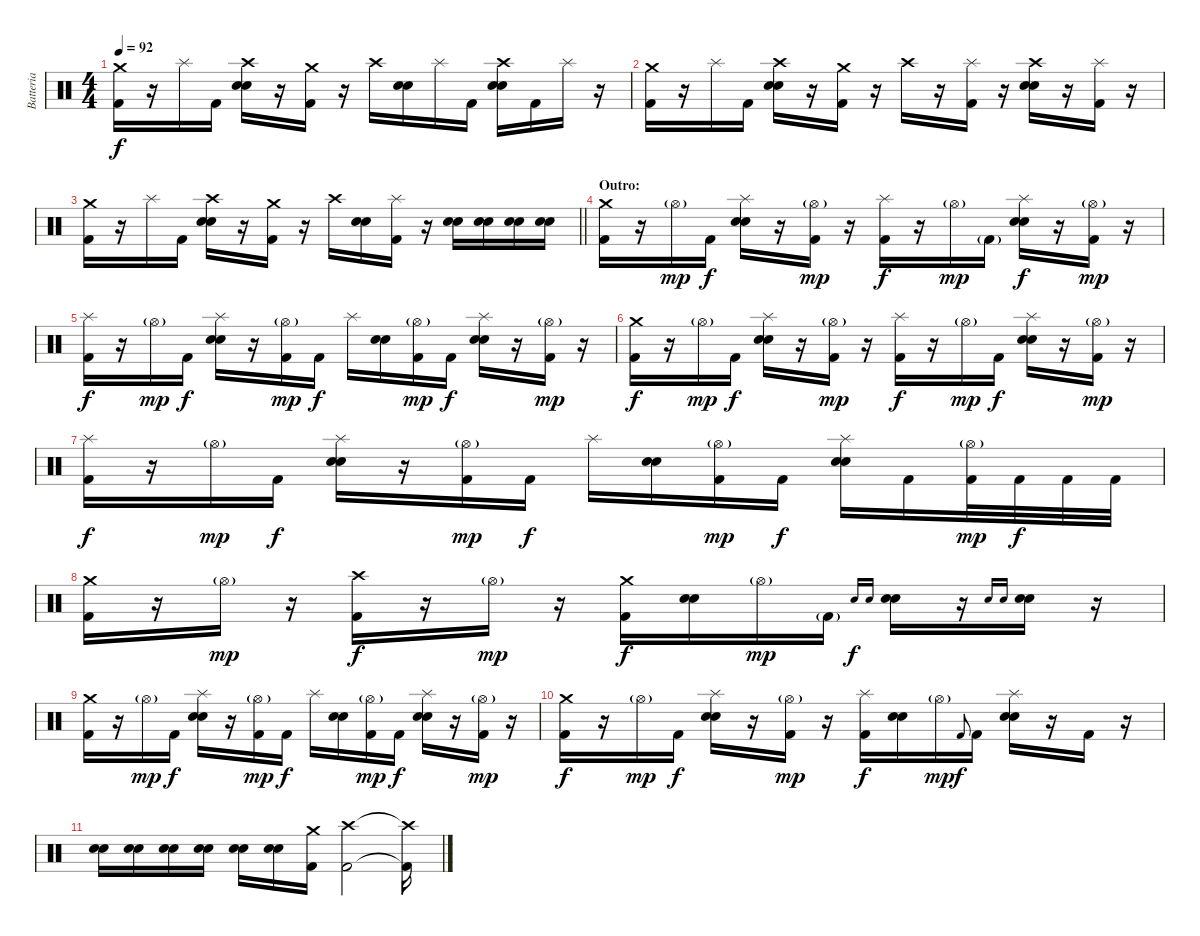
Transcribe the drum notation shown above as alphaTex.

\track ("Batteria" "Batteria") {instrument percussion}
\staff {score}
\articulation defaults
\ts (4 4)
\tempo 92
\clef neutral
\ks c
("Kick (hit) 2" "Crash medium (hit)").16{dy f} r.16 "Splash (hit)".16 "Kick (hit) 2".16 ("Snare (hit) 2" "Snare (hit) 2" "Crash high (hit)").16 r.16 ("Kick (hit) 2" "Crash medium (hit)").16 r.16 "Crash high (hit)".16 ("Snare (hit) 2" "Snare (hit) 2").16 "Splash (hit)".16 "Kick (hit) 2".16 ("Snare (hit) 2" "Snare (hit) 2" "Crash high (hit)").16 "Kick (hit) 2".16 "Splash (hit)".16 r.16 |
("Kick (hit) 2" "Crash medium (hit)").16 r.16 "Splash (hit)".16 "Kick (hit) 2".16 ("Snare (hit) 2" "Snare (hit) 2" "Crash high (hit)").16 r.16 ("Kick (hit) 2" "Crash medium (hit)").16 r.16 "Crash high (hit)".16 r.16 ("Kick (hit) 2" "Splash (hit)").16 r.16 ("Snare (hit) 2" "Snare (hit) 2" "Crash high (hit)").16 r.16 ("Kick (hit) 2" "Splash (hit)").16 r.16 |
\barLineRight lightlight
("Kick (hit) 2" "Crash medium (hit)").16 r.16 "Splash (hit)".16 "Kick (hit) 2".16 ("Snare (hit) 2" "Snare (hit) 2" "Crash high (hit)").16 r.16 ("Kick (hit) 2" "Crash medium (hit)").16 r.16 "Crash high (hit)".16 ("Snare (hit) 2" "Snare (hit) 2").16 ("Kick (hit) 2" "Splash (hit)").16 r.16 ("Snare (hit) 2" "Snare (hit) 2").16 ("Snare (hit) 2" "Snare (hit) 2").16 ("Snare (hit) 2" "Snare (hit) 2").16 ("Snare (hit) 2" "Snare (hit) 2").16 |
\section ("" "Outro:")
("Kick (hit) 2" "Crash medium (hit)").16 r.16 "Hi-Hat (open)"{g}.16{dy mp} "Kick (hit) 2".16{dy f} ("Snare (hit) 2" "Snare (hit) 2" "Splash (hit)").16 r.16 ("Kick (hit) 2" "Hi-Hat (open)"{g}).16{dy mp} r.16 ("Kick (hit) 2" "Splash (hit)").16{dy f} r.16 "Hi-Hat (open)"{g}.16{dy mp} "Kick (hit) 2"{g}.16 ("Snare (hit) 2" "Snare (hit) 2" "Splash (hit)").16{dy f} r.16 ("Kick (hit) 2" "Hi-Hat (open)"{g}).16{dy mp} r.16 |
("Kick (hit) 2" "Splash (hit)").16{dy f} r.16 "Hi-Hat (open)"{g}.16{dy mp} "Kick (hit) 2".16{dy f} ("Snare (hit) 2" "Snare (hit) 2" "Splash (hit)").16 r.16 ("Kick (hit) 2" "Hi-Hat (open)"{g}).16{dy mp} "Kick (hit) 2".16{dy f} "Splash (hit)".16 ("Snare (hit) 2" "Snare (hit) 2").16 ("Kick (hit) 2" "Hi-Hat (open)"{g}).16{dy mp} "Kick (hit) 2".16{dy f} ("Snare (hit) 2" "Snare (hit) 2" "Splash (hit)").16 r.16 ("Kick (hit) 2" "Hi-Hat (open)"{g}).16{dy mp} r.16 |
("Kick (hit) 2" "Crash medium (hit)").16{dy f} r.16 "Hi-Hat (open)"{g}.16{dy mp} "Kick (hit) 2".16{dy f} ("Snare (hit) 2" "Snare (hit) 2" "Splash (hit)").16 r.16 ("Kick (hit) 2" "Hi-Hat (open)"{g}).16{dy mp} r.16 ("Kick (hit) 2" "Splash (hit)").16{dy f} r.16 "Hi-Hat (open)"{g}.16{dy mp} "Kick (hit) 2".16{dy f} ("Snare (hit) 2" "Snare (hit) 2" "Splash (hit)").16 r.16 ("Kick (hit) 2" "Hi-Hat (open)"{g}).16{dy mp} r.16 |
("Kick (hit) 2" "Splash (hit)").16{dy f} r.16 "Hi-Hat (open)"{g}.16{dy mp} "Kick (hit) 2".16{dy f} ("Snare (hit) 2" "Snare (hit) 2" "Splash (hit)").16 r.16 ("Kick (hit) 2" "Hi-Hat (open)"{g}).16{dy mp} "Kick (hit) 2".16{dy f} "Splash (hit)".16 ("Snare (hit) 2" "Snare (hit) 2").16 ("Kick (hit) 2" "Hi-Hat (open)"{g}).16{dy mp} "Kick (hit) 2".16{dy f} ("Snare (hit) 2" "Snare (hit) 2" "Splash (hit)").16 "Kick (hit) 2".16 ("Kick (hit) 2" "Hi-Hat (open)"{g}).32{dy mp} "Kick (hit) 2".32{dy f} "Kick (hit) 2".32 "Kick (hit) 2".32 |
("Kick (hit) 2" "Crash medium (hit)").16 r.16 "Hi-Hat (open)"{g}.16{dy mp} r.16 ("Kick (hit) 2" "Crash high (hit)").16{dy f} r.16 "Hi-Hat (open)"{g}.16{dy mp} r.16 ("Kick (hit) 2" "Crash medium (hit)").16{dy f} ("Snare (hit) 2" "Snare (hit) 2").16 "Hi-Hat (open)"{g}.16{dy mp} "Kick (hit) 2"{g}.16 "Snare (hit) 2".16{gr onbeat dy f} "Snare (hit) 2".16{gr onbeat} ("Snare (hit) 2" "Snare (hit) 2").16 r.16 "Snare (hit) 2".16{gr onbeat} "Snare (hit) 2".16{gr onbeat} ("Snare (hit) 2" "Snare (hit) 2").16 r.16 |
("Kick (hit) 2" "Crash medium (hit)").16 r.16 "Hi-Hat (open)"{g}.16{dy mp} "Kick (hit) 2".16{dy f} ("Snare (hit) 2" "Snare (hit) 2" "Splash (hit)").16 r.16 ("Kick (hit) 2" "Hi-Hat (open)"{g}).16{dy mp} "Kick (hit) 2".16{dy f} "Splash (hit)".16 ("Snare (hit) 2" "Snare (hit) 2").16 ("Kick (hit) 2" "Hi-Hat (open)"{g}).16{dy mp} "Kick (hit) 2".16{dy f} ("Snare (hit) 2" "Snare (hit) 2" "Splash (hit)").16 r.16 ("Kick (hit) 2" "Hi-Hat (open)"{g}).16{dy mp} r.16 |
("Kick (hit) 2" "Crash medium (hit)").16{dy f} r.16 "Hi-Hat (open)"{g}.16{dy mp} "Kick (hit) 2".16{dy f} ("Snare (hit) 2" "Snare (hit) 2" "Splash (hit)").16 r.16 ("Kick (hit) 2" "Hi-Hat (open)"{g}).16{dy mp} r.16 ("Kick (hit) 2" "Splash (hit)").16{dy f} ("Snare (hit) 2" "Snare (hit) 2").16 "Hi-Hat (open)"{g}.16{dy mp} "Kick (hit) 2".8{gr onbeat dy f} "Kick (hit) 2".16 ("Snare (hit) 2" "Snare (hit) 2" "Splash (hit)").16 r.16 "Kick (hit) 2".16 r.16 |
("Snare (hit) 2" "Snare (hit) 2").16 ("Snare (hit) 2" "Snare (hit) 2").16 ("Snare (hit) 2" "Snare (hit) 2").16 ("Snare (hit) 2" "Snare (hit) 2").16 ("Snare (hit) 2" "Snare (hit) 2").16 ("Snare (hit) 2" "Snare (hit) 2").16 ("Kick (hit) 2" "Crash medium (hit)").16 ("Kick (hit) 2" "Crash high (hit)").2 ("Kick (hit) 2"{t} "Crash high (hit)"{t}).16
